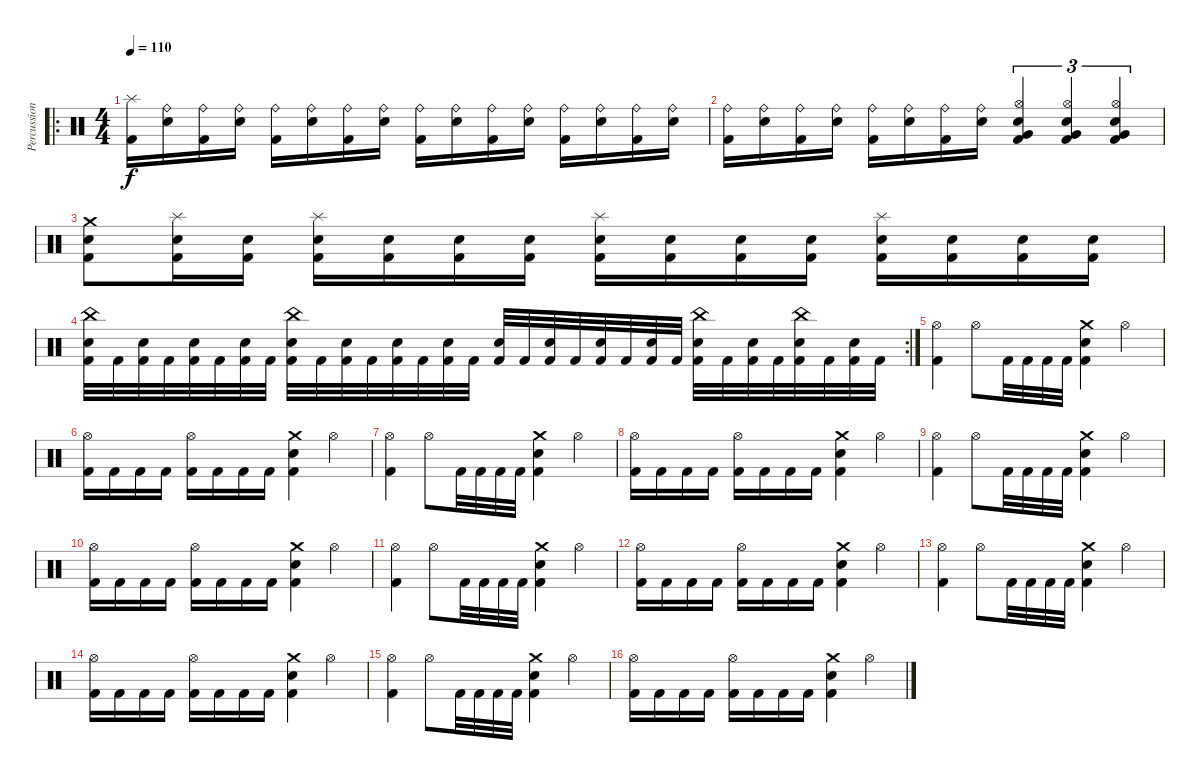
\track ("Percussion" "Percussion") {instrument percussion}
\staff {score}
\articulation defaults
\ro
\ts (4 4)
\tempo 110
\clef neutral
\ks c
("Splash (hit)" "Kick (hit) 2").16{dy f} ("Ride (bell)" "Electric Snare (hit)").16 ("Ride (bell)" "Kick (hit) 2").16 ("Ride (bell)" "Electric Snare (hit)").16 ("Ride (bell)" "Kick (hit) 2").16 ("Ride (bell)" "Electric Snare (hit)").16 ("Ride (bell)" "Kick (hit) 2").16 ("Ride (bell)" "Electric Snare (hit)").16 ("Ride (bell)" "Kick (hit) 2").16 ("Ride (bell)" "Electric Snare (hit)").16 ("Ride (bell)" "Kick (hit) 2").16 ("Ride (bell)" "Electric Snare (hit)").16 ("Ride (bell)" "Kick (hit) 2").16 ("Ride (bell)" "Electric Snare (hit)").16 ("Ride (bell)" "Kick (hit) 2").16 ("Ride (bell)" "Electric Snare (hit)").16 |
("Ride (bell)" "Kick (hit) 2").16 ("Ride (bell)" "Electric Snare (hit)").16 ("Ride (bell)" "Kick (hit) 2").16 ("Ride (bell)" "Electric Snare (hit)").16 ("Ride (bell)" "Kick (hit) 2").16 ("Ride (bell)" "Electric Snare (hit)").16 ("Ride (bell)" "Kick (hit) 2").16 ("Ride (bell)" "Electric Snare (hit)").16 ("Hi-Hat (open)" "Very Low Tom (hit)" "Kick (hit) 2" "Electric Snare (hit)").4{tu (3 2)} ("Hi-Hat (open)" "Very Low Tom (hit)" "Kick (hit) 2" "Electric Snare (hit)").4{tu (3 2)} ("Hi-Hat (open)" "Very Low Tom (hit)" "Kick (hit) 2" "Electric Snare (hit)").4{tu (3 2)} |
("Crash medium (hit)" "Electric Snare (hit)" "Kick (hit) 2").8 ("Splash (hit)" "Electric Snare (hit)" "Kick (hit) 2").16 ("Electric Snare (hit)" "Kick (hit) 2").16 ("Splash (hit)" "Electric Snare (hit)" "Kick (hit) 2").16 ("Electric Snare (hit)" "Kick (hit) 2").16 ("Electric Snare (hit)" "Kick (hit) 2").16 ("Electric Snare (hit)" "Kick (hit) 2").16 ("Splash (hit)" "Electric Snare (hit)" "Kick (hit) 2").16 ("Electric Snare (hit)" "Kick (hit) 2").16 ("Electric Snare (hit)" "Kick (hit) 2").16 ("Electric Snare (hit)" "Kick (hit) 2").16 ("Splash (hit)" "Electric Snare (hit)" "Kick (hit) 2").16 ("Electric Snare (hit)" "Kick (hit) 2").16 ("Electric Snare (hit)" "Kick (hit) 2").16 ("Electric Snare (hit)" "Kick (hit) 2").16 |
\rc 2
("China (hit)" "Electric Snare (hit)" "Kick (hit) 2").32 "Kick (hit) 2".32 ("Electric Snare (hit)" "Kick (hit) 2").32 "Kick (hit) 2".32 ("Electric Snare (hit)" "Kick (hit) 2").32 "Kick (hit) 2".32 ("Electric Snare (hit)" "Kick (hit) 2").32 "Kick (hit) 2".32 ("China (hit)" "Electric Snare (hit)" "Kick (hit) 2").32 "Kick (hit) 2".32 ("Electric Snare (hit)" "Kick (hit) 2").32 "Kick (hit) 2".32 ("Electric Snare (hit)" "Kick (hit) 2").32 "Kick (hit) 2".32 ("Electric Snare (hit)" "Kick (hit) 2").32 "Kick (hit) 2".32 ("Electric Snare (hit)" "Kick (hit) 2").32 "Kick (hit) 2".32 ("Electric Snare (hit)" "Kick (hit) 2").32 "Kick (hit) 2".32 ("Electric Snare (hit)" "Kick (hit) 2").32 "Kick (hit) 2".32 ("Electric Snare (hit)" "Kick (hit) 2").32 "Kick (hit) 2".32 ("China (hit)" "Electric Snare (hit)" "Kick (hit) 2").32 "Kick (hit) 2".32 ("Electric Snare (hit)" "Kick (hit) 2").32 "Kick (hit) 2".32 ("China (hit)" "Electric Snare (hit)" "Kick (hit) 2").32 "Kick (hit) 2".32 ("Electric Snare (hit)" "Kick (hit) 2").32 "Kick (hit) 2".32 |
("Hi-Hat (open)" "Kick (hit) 2").4 "Hi-Hat (open)".8 "Kick (hit) 2".32 "Kick (hit) 2".32 "Kick (hit) 2".32 "Kick (hit) 2".32 ("Crash medium (hit)" "Kick (hit) 2" "Electric Snare (hit)").4 "Hi-Hat (open)".4 |
("Hi-Hat (open)" "Kick (hit) 2").16 "Kick (hit) 2".16 "Kick (hit) 2".16 "Kick (hit) 2".16 ("Hi-Hat (open)" "Kick (hit) 2").16 "Kick (hit) 2".16 "Kick (hit) 2".16 "Kick (hit) 2".16 ("Kick (hit) 2" "Crash medium (hit)" "Electric Snare (hit)").4 "Hi-Hat (open)".4 |
("Hi-Hat (open)" "Kick (hit) 2").4 "Hi-Hat (open)".8 "Kick (hit) 2".32 "Kick (hit) 2".32 "Kick (hit) 2".32 "Kick (hit) 2".32 ("Crash medium (hit)" "Kick (hit) 2" "Electric Snare (hit)").4 "Hi-Hat (open)".4 |
("Hi-Hat (open)" "Kick (hit) 2").16 "Kick (hit) 2".16 "Kick (hit) 2".16 "Kick (hit) 2".16 ("Hi-Hat (open)" "Kick (hit) 2").16 "Kick (hit) 2".16 "Kick (hit) 2".16 "Kick (hit) 2".16 ("Kick (hit) 2" "Crash medium (hit)" "Electric Snare (hit)").4 "Hi-Hat (open)".4 |
("Hi-Hat (open)" "Kick (hit) 2").4 "Hi-Hat (open)".8 "Kick (hit) 2".32 "Kick (hit) 2".32 "Kick (hit) 2".32 "Kick (hit) 2".32 ("Crash medium (hit)" "Kick (hit) 2" "Electric Snare (hit)").4 "Hi-Hat (open)".4 |
("Hi-Hat (open)" "Kick (hit) 2").16 "Kick (hit) 2".16 "Kick (hit) 2".16 "Kick (hit) 2".16 ("Hi-Hat (open)" "Kick (hit) 2").16 "Kick (hit) 2".16 "Kick (hit) 2".16 "Kick (hit) 2".16 ("Kick (hit) 2" "Crash medium (hit)" "Electric Snare (hit)").4 "Hi-Hat (open)".4 |
("Hi-Hat (open)" "Kick (hit) 2").4 "Hi-Hat (open)".8 "Kick (hit) 2".32 "Kick (hit) 2".32 "Kick (hit) 2".32 "Kick (hit) 2".32 ("Crash medium (hit)" "Kick (hit) 2" "Electric Snare (hit)").4 "Hi-Hat (open)".4 |
("Hi-Hat (open)" "Kick (hit) 2").16 "Kick (hit) 2".16 "Kick (hit) 2".16 "Kick (hit) 2".16 ("Hi-Hat (open)" "Kick (hit) 2").16 "Kick (hit) 2".16 "Kick (hit) 2".16 "Kick (hit) 2".16 ("Kick (hit) 2" "Crash medium (hit)" "Electric Snare (hit)").4 "Hi-Hat (open)".4 |
("Hi-Hat (open)" "Kick (hit) 2").4 "Hi-Hat (open)".8 "Kick (hit) 2".32 "Kick (hit) 2".32 "Kick (hit) 2".32 "Kick (hit) 2".32 ("Crash medium (hit)" "Kick (hit) 2" "Electric Snare (hit)").4 "Hi-Hat (open)".4 |
("Hi-Hat (open)" "Kick (hit) 2").16 "Kick (hit) 2".16 "Kick (hit) 2".16 "Kick (hit) 2".16 ("Hi-Hat (open)" "Kick (hit) 2").16 "Kick (hit) 2".16 "Kick (hit) 2".16 "Kick (hit) 2".16 ("Kick (hit) 2" "Crash medium (hit)" "Electric Snare (hit)").4 "Hi-Hat (open)".4 |
("Hi-Hat (open)" "Kick (hit) 2").4 "Hi-Hat (open)".8 "Kick (hit) 2".32 "Kick (hit) 2".32 "Kick (hit) 2".32 "Kick (hit) 2".32 ("Crash medium (hit)" "Kick (hit) 2" "Electric Snare (hit)").4 "Hi-Hat (open)".4 |
("Hi-Hat (open)" "Kick (hit) 2").16 "Kick (hit) 2".16 "Kick (hit) 2".16 "Kick (hit) 2".16 ("Hi-Hat (open)" "Kick (hit) 2").16 "Kick (hit) 2".16 "Kick (hit) 2".16 "Kick (hit) 2".16 ("Kick (hit) 2" "Crash medium (hit)" "Electric Snare (hit)").4 "Hi-Hat (open)".4
